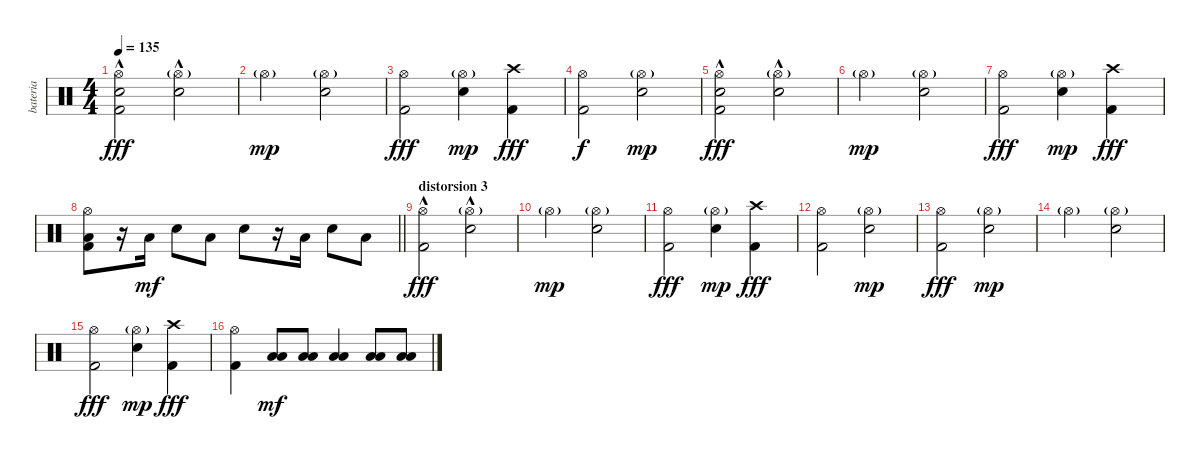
\track ("bateria" "bateria") {instrument percussion}
\staff {score}
\articulation defaults
\ts (4 4)
\tempo 135
\clef neutral
\ks c
("Hi-Hat (open)" "Snare (hit)" "Kick (hit) 2"{hac}).2{dy fff} ("Hi-Hat (open)"{g} "Snare (hit) 2"{hac}).2 |
"Hi-Hat (open)"{g}.2{dy mp} ("Hi-Hat (open)"{g} "Snare (hit) 2").2 |
("Hi-Hat (open)" "Kick (hit) 2").2{dy fff} ("Hi-Hat (open)"{g} "Snare (hit) 2").4{dy mp} ("Crash high (hit)" "Kick (hit) 2").4{dy fff} |
("Hi-Hat (open)" "Kick (hit) 2").2{dy f} ("Hi-Hat (open)"{g} "Snare (hit) 2").2{dy mp} |
("Hi-Hat (open)" "Snare (hit)" "Kick (hit) 2"{hac}).2{dy fff} ("Hi-Hat (open)"{g} "Snare (hit) 2"{hac}).2 |
"Hi-Hat (open)"{g}.2{dy mp} ("Hi-Hat (open)"{g} "Snare (hit) 2").2 |
("Hi-Hat (open)" "Kick (hit) 2").2{dy fff} ("Hi-Hat (open)"{g} "Snare (hit) 2").4{dy mp} ("Crash high (hit)" "Kick (hit) 2").4{dy fff} |
\barLineRight lightlight
("Hi-Hat (open)" "Low Floor Tom (hit)" "Kick (hit) 2").8 r.16 "Low Floor Tom (hit)".16{dy mf} "Snare (hit) 2".8 "Low Floor Tom (hit)".8 "Snare (hit) 2".8 r.16 "Low Floor Tom (hit)".16 "Snare (hit) 2".8 "Low Floor Tom (hit)".8 |
\section ("" "distorsion 3")
("Hi-Hat (open)" "Kick (hit) 2"{hac}).2{dy fff} ("Hi-Hat (open)"{g} "Snare (hit) 2"{hac}).2 |
"Hi-Hat (open)"{g}.2{dy mp} ("Hi-Hat (open)"{g} "Snare (hit) 2").2 |
("Hi-Hat (open)" "Kick (hit) 2").2{dy fff} ("Hi-Hat (open)"{g} "Snare (hit) 2").4{dy mp} ("Crash high (hit)" "Kick (hit) 2").4{dy fff} |
("Hi-Hat (open)" "Kick (hit) 2").2 ("Hi-Hat (open)"{g} "Snare (hit) 2").2{dy mp} |
("Hi-Hat (open)" "Kick (hit) 2").2{dy fff} ("Hi-Hat (open)"{g} "Snare (hit) 2").2{dy mp} |
"Hi-Hat (open)"{g}.2 ("Hi-Hat (open)"{g} "Snare (hit) 2").2 |
("Hi-Hat (open)" "Kick (hit) 2").2{dy fff} ("Hi-Hat (open)"{g} "Snare (hit) 2").4{dy mp} ("Crash high (hit)" "Kick (hit) 2").4{dy fff} |
("Hi-Hat (open)" "Kick (hit) 2").4 ("Low Floor Tom (hit)" "Low Tom (hit)").8{dy mf} ("Low Floor Tom (hit)" "Low Tom (hit)").8 ("Low Tom (hit)" "Low Floor Tom (hit)").4 ("Low Floor Tom (hit)" "Low Tom (hit)").8 ("Low Floor Tom (hit)" "Low Tom (hit)").8
